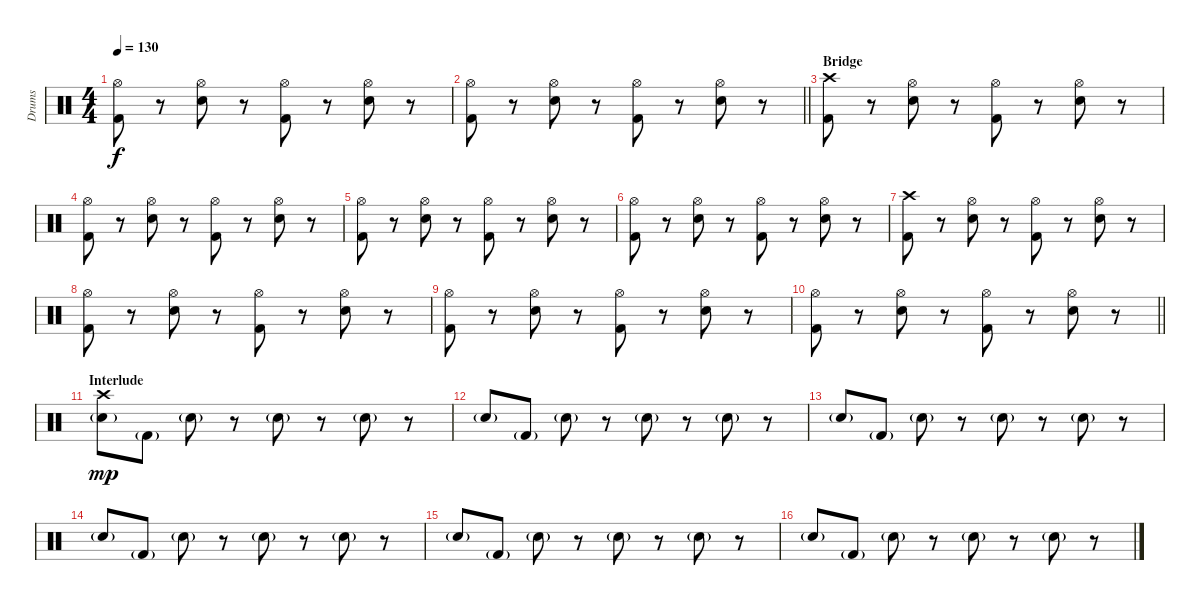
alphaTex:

\track ("Drums" "Drums") {instrument percussion}
\staff {score}
\articulation defaults
\ts (4 4)
\tempo 130
\clef neutral
\ks c
("Hi-Hat (open)" "Kick (hit) 2").8{dy f} r.8 ("Hi-Hat (open)" "Snare (hit) 2").8 r.8 ("Hi-Hat (open)" "Kick (hit) 2").8 r.8 ("Hi-Hat (open)" "Snare (hit) 2").8 r.8 |
\barLineRight lightlight
("Hi-Hat (open)" "Kick (hit) 2").8 r.8 ("Hi-Hat (open)" "Snare (hit) 2").8 r.8 ("Hi-Hat (open)" "Kick (hit) 2").8 r.8 ("Hi-Hat (open)" "Snare (hit) 2").8 r.8 |
\section ("" "Bridge")
("Crash high (hit)" "Kick (hit) 2").8 r.8 ("Hi-Hat (open)" "Snare (hit) 2").8 r.8 ("Hi-Hat (open)" "Kick (hit) 2").8 r.8 ("Hi-Hat (open)" "Snare (hit) 2").8 r.8 |
("Hi-Hat (open)" "Kick (hit) 2").8 r.8 ("Hi-Hat (open)" "Snare (hit) 2").8 r.8 ("Hi-Hat (open)" "Kick (hit) 2").8 r.8 ("Hi-Hat (open)" "Snare (hit) 2").8 r.8 |
("Hi-Hat (open)" "Kick (hit) 2").8 r.8 ("Hi-Hat (open)" "Snare (hit) 2").8 r.8 ("Hi-Hat (open)" "Kick (hit) 2").8 r.8 ("Hi-Hat (open)" "Snare (hit) 2").8 r.8 |
("Hi-Hat (open)" "Kick (hit) 2").8 r.8 ("Hi-Hat (open)" "Snare (hit) 2").8 r.8 ("Hi-Hat (open)" "Kick (hit) 2").8 r.8 ("Hi-Hat (open)" "Snare (hit) 2").8 r.8 |
("Crash high (hit)" "Kick (hit) 2").8 r.8 ("Hi-Hat (open)" "Snare (hit) 2").8 r.8 ("Hi-Hat (open)" "Kick (hit) 2").8 r.8 ("Hi-Hat (open)" "Snare (hit) 2").8 r.8 |
("Hi-Hat (open)" "Kick (hit) 2").8 r.8 ("Hi-Hat (open)" "Snare (hit) 2").8 r.8 ("Hi-Hat (open)" "Kick (hit) 2").8 r.8 ("Hi-Hat (open)" "Snare (hit) 2").8 r.8 |
("Hi-Hat (open)" "Kick (hit) 2").8 r.8 ("Hi-Hat (open)" "Snare (hit) 2").8 r.8 ("Hi-Hat (open)" "Kick (hit) 2").8 r.8 ("Hi-Hat (open)" "Snare (hit) 2").8 r.8 |
\barLineRight lightlight
("Hi-Hat (open)" "Kick (hit) 2").8 r.8 ("Hi-Hat (open)" "Snare (hit) 2").8 r.8 ("Hi-Hat (open)" "Kick (hit) 2").8 r.8 ("Hi-Hat (open)" "Snare (hit) 2").8 r.8 |
\section ("" "Interlude")
("Crash high (hit)" "Snare (hit) 2"{g}).8{dy mp} "Kick (hit) 2"{g}.8 "Snare (hit) 2"{g}.8 r.8 "Snare (hit) 2"{g}.8 r.8 "Snare (hit) 2"{g}.8 r.8 |
"Snare (hit) 2"{g}.8 "Kick (hit) 2"{g}.8 "Snare (hit) 2"{g}.8 r.8 "Snare (hit) 2"{g}.8 r.8 "Snare (hit) 2"{g}.8 r.8 |
"Snare (hit) 2"{g}.8 "Kick (hit) 2"{g}.8 "Snare (hit) 2"{g}.8 r.8 "Snare (hit) 2"{g}.8 r.8 "Snare (hit) 2"{g}.8 r.8 |
"Snare (hit) 2"{g}.8 "Kick (hit) 2"{g}.8 "Snare (hit) 2"{g}.8 r.8 "Snare (hit) 2"{g}.8 r.8 "Snare (hit) 2"{g}.8 r.8 |
"Snare (hit) 2"{g}.8 "Kick (hit) 2"{g}.8 "Snare (hit) 2"{g}.8 r.8 "Snare (hit) 2"{g}.8 r.8 "Snare (hit) 2"{g}.8 r.8 |
"Snare (hit) 2"{g}.8 "Kick (hit) 2"{g}.8 "Snare (hit) 2"{g}.8 r.8 "Snare (hit) 2"{g}.8 r.8 "Snare (hit) 2"{g}.8 r.8
